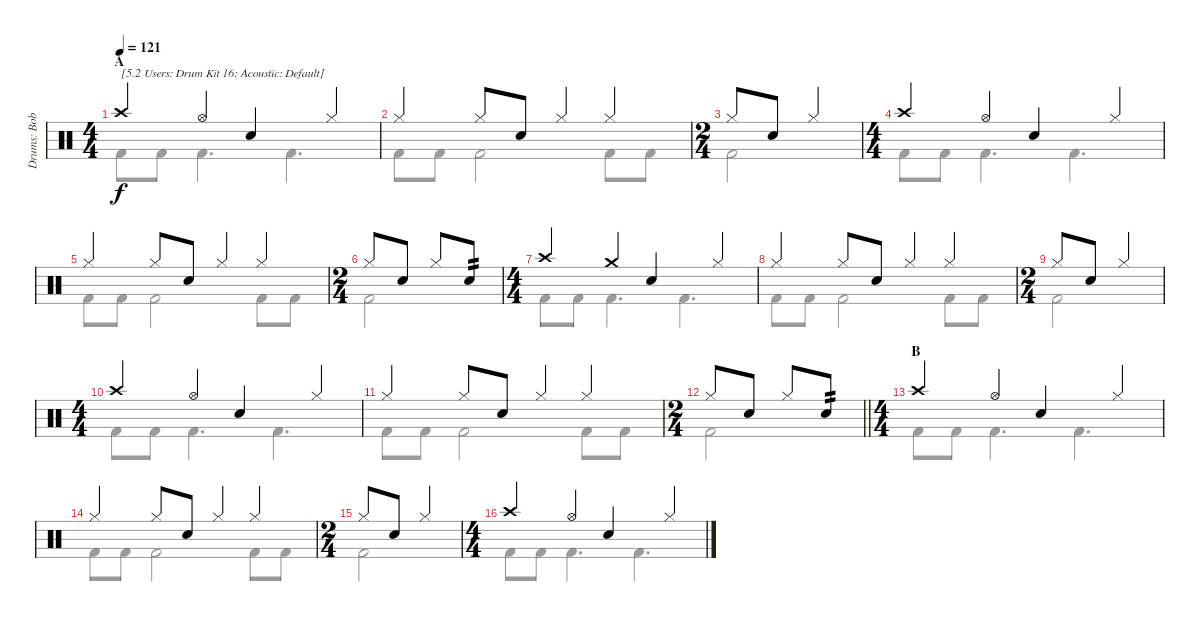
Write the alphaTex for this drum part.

\track ("Drums: Bobby" "Drums: Bob") {instrument percussion}
\staff {score}
\articulation defaults
\voice
\ts (4 4)
\section ("" "A")
\tempo 121
\clef neutral
\ks c "Crash high (hit)".4{txt "[5.2 Users: Drum Kit 16: Acoustic: Default]" dy f} "Hi-Hat (open)".4 "Snare (hit) 2".4 "Hi-Hat (closed)".4
|
"Hi-Hat (closed)".4 "Hi-Hat (closed)".8 "Snare (hit) 2".8 "Hi-Hat (closed)".4 "Hi-Hat (closed)".4 |
\ts (2 4)
"Hi-Hat (closed)".8 "Snare (hit) 2".8 "Hi-Hat (closed)".4 |
\ts (4 4)
"Crash high (hit)".4 "Hi-Hat (open)".4 "Snare (hit) 2".4 "Hi-Hat (closed)".4 |
"Hi-Hat (closed)".4 "Hi-Hat (closed)".8 "Snare (hit) 2".8 "Hi-Hat (closed)".4 "Hi-Hat (closed)".4 |
\ts (2 4)
"Hi-Hat (closed)".8 "Snare (hit) 2".8 "Hi-Hat (closed)".8 "Snare (hit) 2".8{tp 2} |
\ts (4 4)
"Crash high (hit)".4 "Crash medium (hit)".4 "Snare (hit) 2".4 "Hi-Hat (closed)".4 |
"Hi-Hat (closed)".4 "Hi-Hat (closed)".8 "Snare (hit) 2".8 "Hi-Hat (closed)".4 "Hi-Hat (closed)".4 |
\ts (2 4)
"Hi-Hat (closed)".8 "Snare (hit) 2".8 "Hi-Hat (closed)".4 |
\ts (4 4)
"Crash high (hit)".4 "Hi-Hat (open)".4 "Snare (hit) 2".4 "Hi-Hat (closed)".4 |
"Hi-Hat (closed)".4 "Hi-Hat (closed)".8 "Snare (hit) 2".8 "Hi-Hat (closed)".4 "Hi-Hat (closed)".4 |
\ts (2 4)
\barLineRight lightlight "Hi-Hat (closed)".8 "Snare (hit) 2".8 "Hi-Hat (closed)".8 "Snare (hit) 2".8{tp 2}
|
\ts (4 4)
\section ("" "B")
"Crash high (hit)".4 "Hi-Hat (open)".4 "Snare (hit) 2".4 "Hi-Hat (closed)".4 |
"Hi-Hat (closed)".4 "Hi-Hat (closed)".8 "Snare (hit) 2".8 "Hi-Hat (closed)".4 "Hi-Hat (closed)".4 |
\ts (2 4)
"Hi-Hat (closed)".8 "Snare (hit) 2".8 "Hi-Hat (closed)".4 |
\ts (4 4)
"Crash high (hit)".4 "Hi-Hat (open)".4 "Snare (hit) 2".4 "Hi-Hat (closed)".4
\voice
\clef neutral
\ottava regular
\simile none
\ks c "Kick (hit) 2".8{dy f} "Kick (hit) 2".8 "Kick (hit) 2".4{d} "Kick (hit) 2".4{d}
|
"Kick (hit) 2".8 "Kick (hit) 2".8 "Kick (hit) 2".2 "Kick (hit) 2".8 "Kick (hit) 2".8 |
"Kick (hit) 2".2 |
"Kick (hit) 2".8 "Kick (hit) 2".8 "Kick (hit) 2".4{d} "Kick (hit) 2".4{d} |
"Kick (hit) 2".8 "Kick (hit) 2".8 "Kick (hit) 2".2 "Kick (hit) 2".8 "Kick (hit) 2".8 |
"Kick (hit) 2".2 |
"Kick (hit) 2".8 "Kick (hit) 2".8 "Kick (hit) 2".4{d} "Kick (hit) 2".4{d} |
"Kick (hit) 2".8 "Kick (hit) 2".8 "Kick (hit) 2".2 "Kick (hit) 2".8 "Kick (hit) 2".8 |
"Kick (hit) 2".2 |
"Kick (hit) 2".8 "Kick (hit) 2".8 "Kick (hit) 2".4{d} "Kick (hit) 2".4{d} |
"Kick (hit) 2".8 "Kick (hit) 2".8 "Kick (hit) 2".2 "Kick (hit) 2".8 "Kick (hit) 2".8 |
\barLineRight lightlight "Kick (hit) 2".2
|
"Kick (hit) 2".8 "Kick (hit) 2".8 "Kick (hit) 2".4{d} "Kick (hit) 2".4{d} |
"Kick (hit) 2".8 "Kick (hit) 2".8 "Kick (hit) 2".2 "Kick (hit) 2".8 "Kick (hit) 2".8 |
"Kick (hit) 2".2 |
"Kick (hit) 2".8 "Kick (hit) 2".8 "Kick (hit) 2".4{d} "Kick (hit) 2".4{d}
